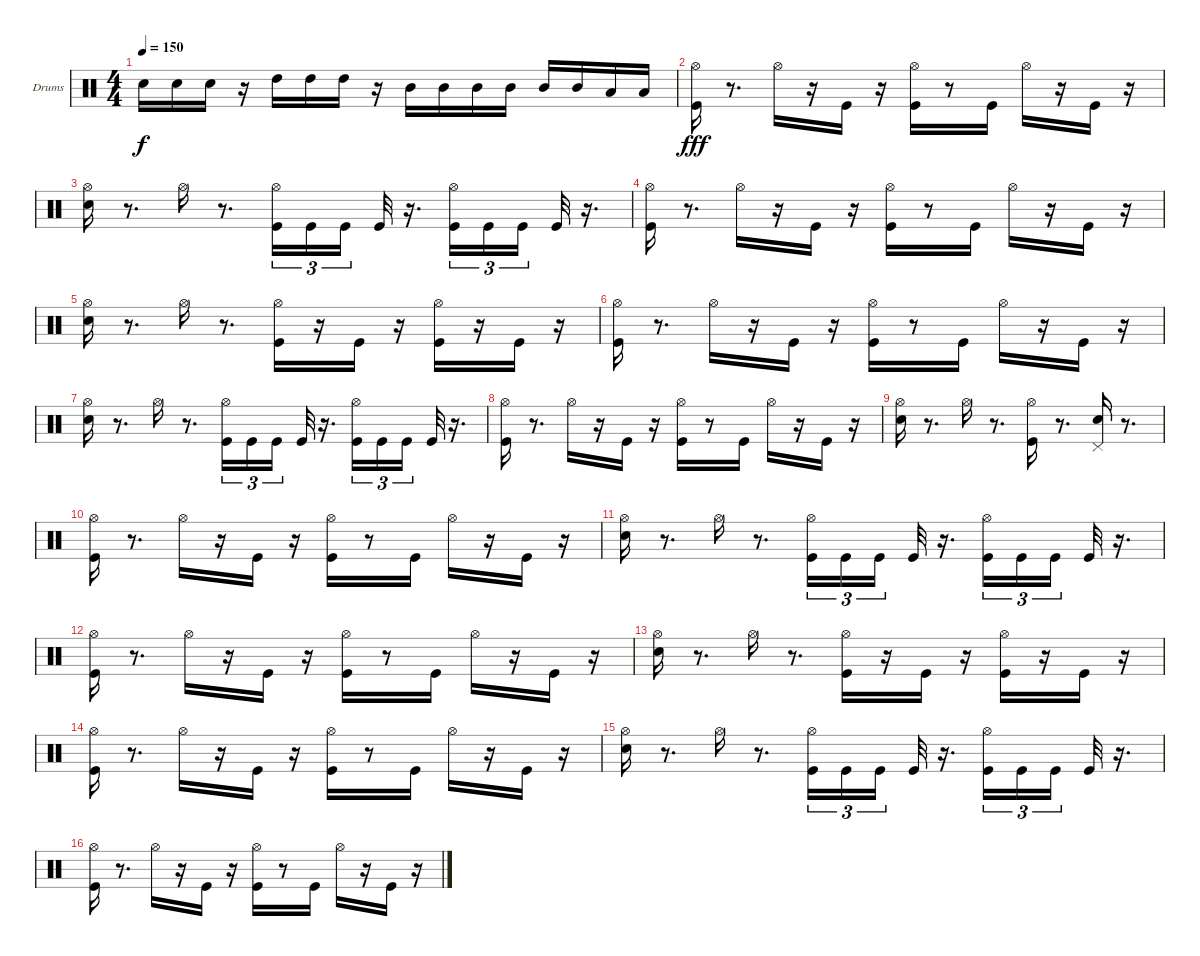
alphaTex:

\bracketExtendMode groupsimilarinstruments
\firstSystemTrackNameOrientation horizontal
\otherSystemsTrackNameOrientation horizontal
\track ("Rolo" "Drums") {instrument percussion}
\staff {score}
\articulation defaults
\ts (4 4)
\tempo 150
\clef neutral
\ks c "Snare (hit) 2".16{dy f} "Snare (hit) 2".16 "Snare (hit) 2".16
r.16 "High Tom (hit)".16 "High Tom (hit)".16 "High Tom (hit)".16 r.16 "Mid Tom (hit)".16 "Mid Tom (hit)".16 "Mid Tom (hit)".16 "Mid Tom (hit)".16 "Mid Tom (hit)".16 "Mid Tom (hit)".16 "Low Tom (hit)".16 "Low Tom (hit)".16 |
("Kick (hit)" "Hi-Hat (open)").16{dy fff} r.8{d} "Hi-Hat (open)".16 r.16 "Kick (hit)".16 r.16 ("Kick (hit)" "Hi-Hat (open)").16 r.8 "Kick (hit)".16 "Hi-Hat (open)".16 r.16 "Kick (hit)".16 r.16 |
("Snare (hit) 2" "Hi-Hat (open)").16 r.8{d} "Hi-Hat (open)".16 r.8{d} ("Kick (hit)" "Hi-Hat (open)").16{tu (3 2)} "Kick (hit)".16{tu (3 2)} "Kick (hit)".16{tu (3 2)} "Kick (hit)".32 r.16{d} ("Kick (hit)" "Hi-Hat (open)").16{tu (3 2)} "Kick (hit)".16{tu (3 2)} "Kick (hit)".16{tu (3 2)} "Kick (hit)".32 r.16{d} |
("Kick (hit)" "Hi-Hat (open)").16 r.8{d} "Hi-Hat (open)".16 r.16 "Kick (hit)".16 r.16 ("Kick (hit)" "Hi-Hat (open)").16 r.8 "Kick (hit)".16 "Hi-Hat (open)".16 r.16 "Kick (hit)".16 r.16 |
("Snare (hit) 2" "Hi-Hat (open)").16 r.8{d} "Hi-Hat (open)".16 r.8{d} ("Kick (hit)" "Hi-Hat (open)").16 r.16 "Kick (hit)".16 r.16 ("Kick (hit)" "Hi-Hat (open)").16 r.16 "Kick (hit)".16 r.16 |
("Kick (hit)" "Hi-Hat (open)").16 r.8{d} "Hi-Hat (open)".16 r.16 "Kick (hit)".16 r.16 ("Kick (hit)" "Hi-Hat (open)").16 r.8 "Kick (hit)".16 "Hi-Hat (open)".16 r.16 "Kick (hit)".16 r.16 |
("Snare (hit) 2" "Hi-Hat (open)").16 r.8{d} "Hi-Hat (open)".16 r.8{d} ("Kick (hit)" "Hi-Hat (open)").16{tu (3 2)} "Kick (hit)".16{tu (3 2)} "Kick (hit)".16{tu (3 2)} "Kick (hit)".32 r.16{d} ("Kick (hit)" "Hi-Hat (open)").16{tu (3 2)} "Kick (hit)".16{tu (3 2)} "Kick (hit)".16{tu (3 2)} "Kick (hit)".32 r.16{d} |
("Kick (hit)" "Hi-Hat (open)").16 r.8{d} "Hi-Hat (open)".16 r.16 "Kick (hit)".16 r.16 ("Kick (hit)" "Hi-Hat (open)").16 r.8 "Kick (hit)".16 "Hi-Hat (open)".16 r.16 "Kick (hit)".16 r.16 |
("Snare (hit) 2" "Hi-Hat (open)").16 r.8{d} "Hi-Hat (open)".16 r.8{d} ("Kick (hit)" "Hi-Hat (open)").16 r.8{d} ("Snare (hit) 2" "Pedal Hi-Hat (hit)").16 r.8{d} |
("Kick (hit)" "Hi-Hat (open)").16 r.8{d} "Hi-Hat (open)".16 r.16 "Kick (hit)".16 r.16 ("Kick (hit)" "Hi-Hat (open)").16 r.8 "Kick (hit)".16 "Hi-Hat (open)".16 r.16 "Kick (hit)".16 r.16 |
("Snare (hit) 2" "Hi-Hat (open)").16 r.8{d} "Hi-Hat (open)".16 r.8{d} ("Kick (hit)" "Hi-Hat (open)").16{tu (3 2)} "Kick (hit)".16{tu (3 2)} "Kick (hit)".16{tu (3 2)} "Kick (hit)".32 r.16{d} ("Kick (hit)" "Hi-Hat (open)").16{tu (3 2)} "Kick (hit)".16{tu (3 2)} "Kick (hit)".16{tu (3 2)} "Kick (hit)".32 r.16{d} |
("Kick (hit)" "Hi-Hat (open)").16 r.8{d} "Hi-Hat (open)".16 r.16 "Kick (hit)".16 r.16 ("Kick (hit)" "Hi-Hat (open)").16 r.8 "Kick (hit)".16 "Hi-Hat (open)".16 r.16 "Kick (hit)".16 r.16 |
("Snare (hit) 2" "Hi-Hat (open)").16 r.8{d} "Hi-Hat (open)".16 r.8{d} ("Kick (hit)" "Hi-Hat (open)").16 r.16 "Kick (hit)".16 r.16 ("Kick (hit)" "Hi-Hat (open)").16 r.16 "Kick (hit)".16 r.16 |
("Kick (hit)" "Hi-Hat (open)").16 r.8{d} "Hi-Hat (open)".16 r.16 "Kick (hit)".16 r.16 ("Kick (hit)" "Hi-Hat (open)").16 r.8 "Kick (hit)".16 "Hi-Hat (open)".16 r.16 "Kick (hit)".16 r.16 |
("Snare (hit) 2" "Hi-Hat (open)").16 r.8{d} "Hi-Hat (open)".16 r.8{d} ("Kick (hit)" "Hi-Hat (open)").16{tu (3 2)} "Kick (hit)".16{tu (3 2)} "Kick (hit)".16{tu (3 2)} "Kick (hit)".32 r.16{d} ("Kick (hit)" "Hi-Hat (open)").16{tu (3 2)} "Kick (hit)".16{tu (3 2)} "Kick (hit)".16{tu (3 2)} "Kick (hit)".32 r.16{d} |
("Kick (hit)" "Hi-Hat (open)").16 r.8{d} "Hi-Hat (open)".16 r.16 "Kick (hit)".16 r.16 ("Kick (hit)" "Hi-Hat (open)").16 r.8 "Kick (hit)".16 "Hi-Hat (open)".16 r.16 "Kick (hit)".16 r.16
